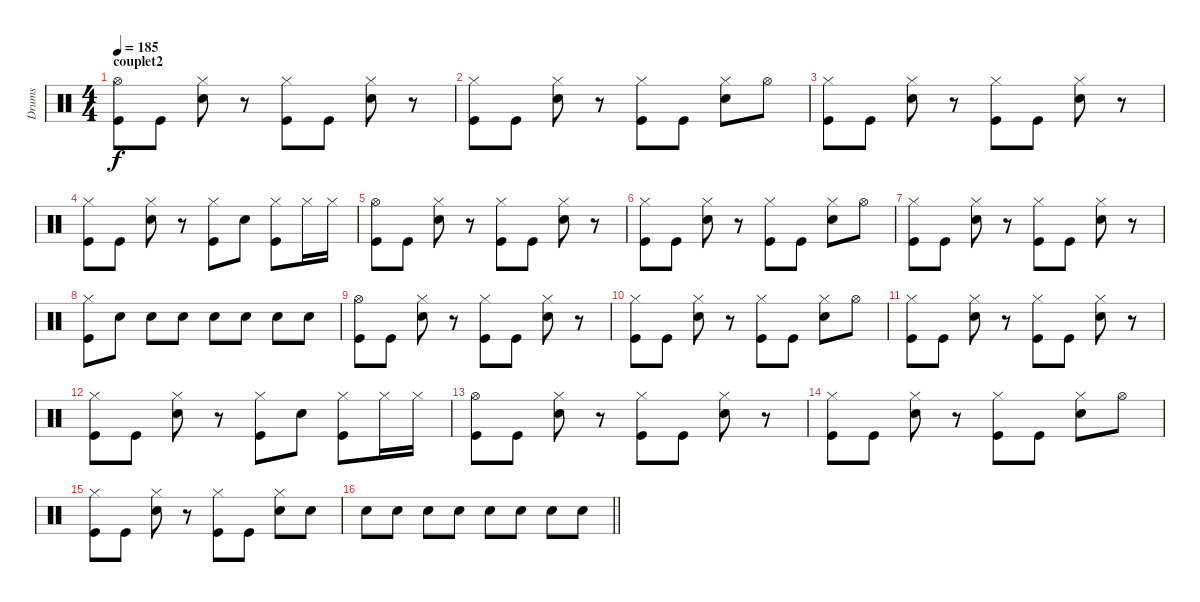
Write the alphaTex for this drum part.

\track ("Drums" "Drums") {instrument percussion}
\staff {score}
\articulation defaults
\ts (4 4)
\section ("" "couplet2")
\tempo 185
\clef neutral
\ks c
("Hi-Hat (open)" "Kick (hit)").8{dy f} "Kick (hit)".8 ("Hi-Hat (closed)" "Electric Snare (hit)").8 r.8 ("Hi-Hat (closed)" "Kick (hit)").8 "Kick (hit)".8 ("Hi-Hat (closed)" "Electric Snare (hit)").8 r.8 |
("Hi-Hat (closed)" "Kick (hit)").8 "Kick (hit)".8 ("Hi-Hat (closed)" "Electric Snare (hit)").8 r.8 ("Hi-Hat (closed)" "Kick (hit)").8 "Kick (hit)".8 ("Hi-Hat (closed)" "Electric Snare (hit)").8 "Hi-Hat (open)".8 |
("Hi-Hat (closed)" "Kick (hit)").8 "Kick (hit)".8 ("Hi-Hat (closed)" "Electric Snare (hit)").8 r.8 ("Hi-Hat (closed)" "Kick (hit)").8 "Kick (hit)".8 ("Hi-Hat (closed)" "Electric Snare (hit)").8 r.8 |
("Hi-Hat (closed)" "Kick (hit)").8 "Kick (hit)".8 ("Hi-Hat (closed)" "Electric Snare (hit)").8 r.8 ("Hi-Hat (closed)" "Kick (hit)").8 "Electric Snare (hit)".8 ("Hi-Hat (closed)" "Kick (hit)").8 "Hi-Hat (closed)".16 "Hi-Hat (closed)".16 |
("Hi-Hat (open)" "Kick (hit)").8 "Kick (hit)".8 ("Hi-Hat (closed)" "Electric Snare (hit)").8 r.8 ("Hi-Hat (closed)" "Kick (hit)").8 "Kick (hit)".8 ("Hi-Hat (closed)" "Electric Snare (hit)").8 r.8 |
("Hi-Hat (closed)" "Kick (hit)").8 "Kick (hit)".8 ("Hi-Hat (closed)" "Electric Snare (hit)").8 r.8 ("Hi-Hat (closed)" "Kick (hit)").8 "Kick (hit)".8 ("Hi-Hat (closed)" "Electric Snare (hit)").8 "Hi-Hat (open)".8 |
("Hi-Hat (closed)" "Kick (hit)").8 "Kick (hit)".8 ("Hi-Hat (closed)" "Electric Snare (hit)").8 r.8 ("Hi-Hat (closed)" "Kick (hit)").8 "Kick (hit)".8 ("Hi-Hat (closed)" "Electric Snare (hit)").8 r.8 |
("Hi-Hat (closed)" "Kick (hit)").8 "Electric Snare (hit)".8 "Electric Snare (hit)".8 "Electric Snare (hit)".8 "Electric Snare (hit)".8 "Electric Snare (hit)".8 "Electric Snare (hit)".8 "Electric Snare (hit)".8 |
("Hi-Hat (open)" "Kick (hit)").8 "Kick (hit)".8 ("Hi-Hat (closed)" "Electric Snare (hit)").8 r.8 ("Hi-Hat (closed)" "Kick (hit)").8 "Kick (hit)".8 ("Hi-Hat (closed)" "Electric Snare (hit)").8 r.8 |
("Hi-Hat (closed)" "Kick (hit)").8 "Kick (hit)".8 ("Hi-Hat (closed)" "Electric Snare (hit)").8 r.8 ("Hi-Hat (closed)" "Kick (hit)").8 "Kick (hit)".8 ("Hi-Hat (closed)" "Electric Snare (hit)").8 "Hi-Hat (open)".8 |
("Hi-Hat (closed)" "Kick (hit)").8 "Kick (hit)".8 ("Hi-Hat (closed)" "Electric Snare (hit)").8 r.8 ("Hi-Hat (closed)" "Kick (hit)").8 "Kick (hit)".8 ("Hi-Hat (closed)" "Electric Snare (hit)").8 r.8 |
("Hi-Hat (closed)" "Kick (hit)").8 "Kick (hit)".8 ("Hi-Hat (closed)" "Electric Snare (hit)").8 r.8 ("Hi-Hat (closed)" "Kick (hit)").8 "Electric Snare (hit)".8 ("Hi-Hat (closed)" "Kick (hit)").8 "Hi-Hat (closed)".16 "Hi-Hat (closed)".16 |
("Hi-Hat (open)" "Kick (hit)").8 "Kick (hit)".8 ("Hi-Hat (closed)" "Electric Snare (hit)").8 r.8 ("Hi-Hat (closed)" "Kick (hit)").8 "Kick (hit)".8 ("Hi-Hat (closed)" "Electric Snare (hit)").8 r.8 |
("Hi-Hat (closed)" "Kick (hit)").8 "Kick (hit)".8 ("Hi-Hat (closed)" "Electric Snare (hit)").8 r.8 ("Hi-Hat (closed)" "Kick (hit)").8 "Kick (hit)".8 ("Hi-Hat (closed)" "Electric Snare (hit)").8 "Hi-Hat (open)".8 |
("Hi-Hat (closed)" "Kick (hit)").8 "Kick (hit)".8 ("Hi-Hat (closed)" "Electric Snare (hit)").8 r.8 ("Hi-Hat (closed)" "Kick (hit)").8 "Kick (hit)".8 ("Hi-Hat (closed)" "Electric Snare (hit)").8 "Electric Snare (hit)".8 |
\barLineRight lightlight "Electric Snare (hit)".8 "Electric Snare (hit)".8 "Electric Snare (hit)".8 "Electric Snare (hit)".8 "Electric Snare (hit)".8 "Electric Snare (hit)".8 "Electric Snare (hit)".8 "Electric Snare (hit)".8
